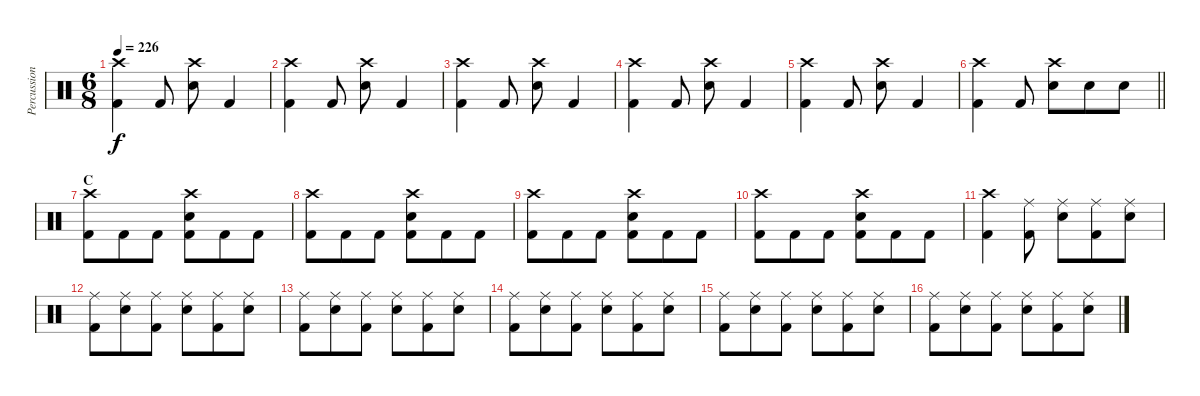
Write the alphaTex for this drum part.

\track ("Percussion" "Percussion") {instrument percussion}
\staff {score}
\articulation defaults
\ts (6 8)
\tempo 226
\clef neutral
\ks c
("Crash high (hit)" "Kick (hit) 2").4{dy f} "Kick (hit) 2".8 ("Crash high (hit)" "Electric Snare (hit)").8 "Kick (hit) 2".4 |
("Crash high (hit)" "Kick (hit) 2").4 "Kick (hit) 2".8 ("Crash high (hit)" "Electric Snare (hit)").8 "Kick (hit) 2".4 |
("Crash high (hit)" "Kick (hit) 2").4 "Kick (hit) 2".8 ("Crash high (hit)" "Electric Snare (hit)").8 "Kick (hit) 2".4 |
("Crash high (hit)" "Kick (hit) 2").4 "Kick (hit) 2".8 ("Crash high (hit)" "Electric Snare (hit)").8 "Kick (hit) 2".4 |
("Crash high (hit)" "Kick (hit) 2").4 "Kick (hit) 2".8 ("Crash high (hit)" "Electric Snare (hit)").8 "Kick (hit) 2".4 |
\barLineRight lightlight
("Crash high (hit)" "Kick (hit) 2").4 "Kick (hit) 2".8 ("Crash high (hit)" "Electric Snare (hit)").8 "Electric Snare (hit)".8 "Electric Snare (hit)".8 |
\section ("" "C")
("Crash high (hit)" "Kick (hit) 2").8 "Kick (hit) 2".8 "Kick (hit) 2".8 ("Crash high (hit)" "Electric Snare (hit)" "Kick (hit) 2").8 "Kick (hit) 2".8 "Kick (hit) 2".8 |
("Crash high (hit)" "Kick (hit) 2").8 "Kick (hit) 2".8 "Kick (hit) 2".8 ("Crash high (hit)" "Electric Snare (hit)" "Kick (hit) 2").8 "Kick (hit) 2".8 "Kick (hit) 2".8 |
("Crash high (hit)" "Kick (hit) 2").8 "Kick (hit) 2".8 "Kick (hit) 2".8 ("Crash high (hit)" "Electric Snare (hit)" "Kick (hit) 2").8 "Kick (hit) 2".8 "Kick (hit) 2".8 |
("Crash high (hit)" "Kick (hit) 2").8 "Kick (hit) 2".8 "Kick (hit) 2".8 ("Crash high (hit)" "Electric Snare (hit)" "Kick (hit) 2").8 "Kick (hit) 2".8 "Kick (hit) 2".8 |
("Crash high (hit)" "Kick (hit) 2").4 ("Ride (middle)" "Kick (hit) 2").8 ("Ride (middle)" "Electric Snare (hit)").8 ("Ride (middle)" "Kick (hit) 2").8 ("Ride (middle)" "Electric Snare (hit)").8 |
("Ride (middle)" "Kick (hit) 2").8 ("Ride (middle)" "Electric Snare (hit)").8 ("Ride (middle)" "Kick (hit) 2").8 ("Ride (middle)" "Electric Snare (hit)").8 ("Ride (middle)" "Kick (hit) 2").8 ("Ride (middle)" "Electric Snare (hit)").8 |
("Ride (middle)" "Kick (hit) 2").8 ("Ride (middle)" "Electric Snare (hit)").8 ("Ride (middle)" "Kick (hit) 2").8 ("Ride (middle)" "Electric Snare (hit)").8 ("Ride (middle)" "Kick (hit) 2").8 ("Ride (middle)" "Electric Snare (hit)").8 |
("Ride (middle)" "Kick (hit) 2").8 ("Ride (middle)" "Electric Snare (hit)").8 ("Ride (middle)" "Kick (hit) 2").8 ("Ride (middle)" "Electric Snare (hit)").8 ("Ride (middle)" "Kick (hit) 2").8 ("Ride (middle)" "Electric Snare (hit)").8 |
("Ride (middle)" "Kick (hit) 2").8 ("Ride (middle)" "Electric Snare (hit)").8 ("Ride (middle)" "Kick (hit) 2").8 ("Ride (middle)" "Electric Snare (hit)").8 ("Ride (middle)" "Kick (hit) 2").8 ("Ride (middle)" "Electric Snare (hit)").8 |
("Ride (middle)" "Kick (hit) 2").8 ("Ride (middle)" "Electric Snare (hit)").8 ("Ride (middle)" "Kick (hit) 2").8 ("Ride (middle)" "Electric Snare (hit)").8 ("Ride (middle)" "Kick (hit) 2").8 ("Ride (middle)" "Electric Snare (hit)").8
